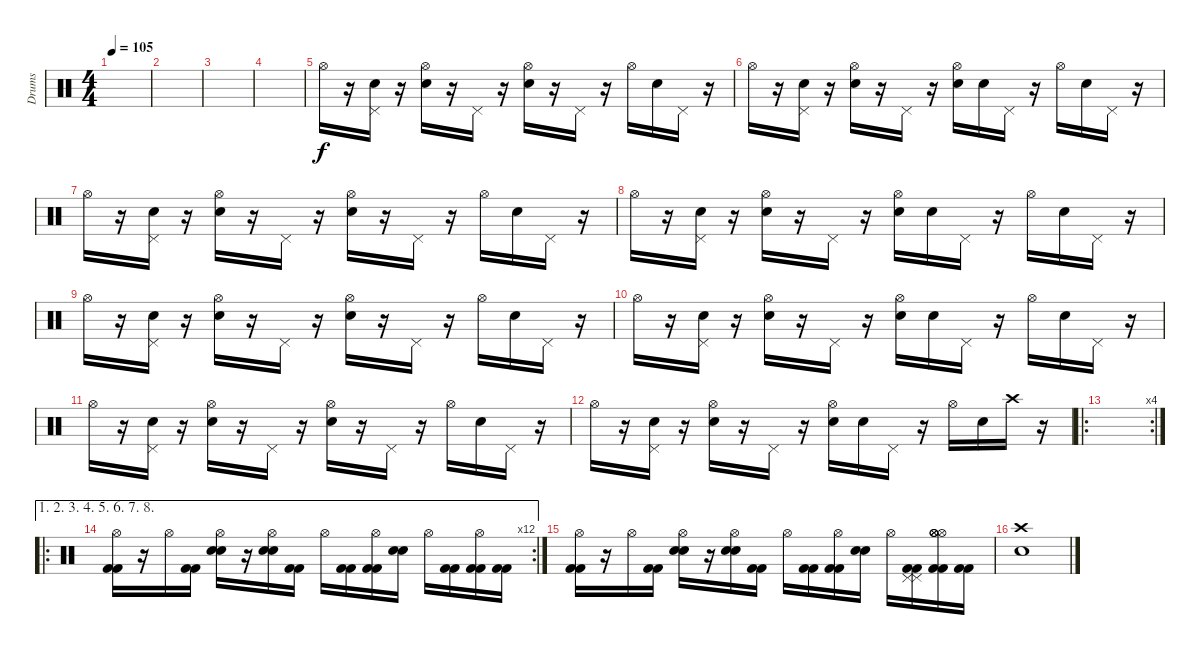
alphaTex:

\track ("Drums" "Drums") {instrument percussion}
\staff {score}
\articulation defaults
\ts (4 4)
\tempo 105
\clef neutral
\ks c
|
|
|
|
"Hi-Hat (open)".16 r.16 ("Pedal Hi-Hat (hit)" "Electric Snare (hit)").16 r.16 ("Hi-Hat (open)" "Electric Snare (hit)").16 r.16 "Pedal Hi-Hat (hit)".16 r.16 ("Hi-Hat (open)" "Electric Snare (hit)").16 r.16 "Pedal Hi-Hat (hit)".16 r.16 "Hi-Hat (open)".16 "Electric Snare (hit)".16 "Pedal Hi-Hat (hit)".16 r.16 |
"Hi-Hat (open)".16 r.16 ("Pedal Hi-Hat (hit)" "Electric Snare (hit)").16 r.16 ("Hi-Hat (open)" "Electric Snare (hit)").16 r.16 "Pedal Hi-Hat (hit)".16 r.16 ("Hi-Hat (open)" "Electric Snare (hit)").16 "Electric Snare (hit)".16 "Pedal Hi-Hat (hit)".16 r.16 "Hi-Hat (open)".16 "Electric Snare (hit)".16 "Pedal Hi-Hat (hit)".16 r.16 |
"Hi-Hat (open)".16 r.16 ("Pedal Hi-Hat (hit)" "Electric Snare (hit)").16 r.16 ("Hi-Hat (open)" "Electric Snare (hit)").16 r.16 "Pedal Hi-Hat (hit)".16 r.16 ("Hi-Hat (open)" "Electric Snare (hit)").16 r.16 "Pedal Hi-Hat (hit)".16 r.16 "Hi-Hat (open)".16 "Electric Snare (hit)".16 "Pedal Hi-Hat (hit)".16 r.16 |
"Hi-Hat (open)".16 r.16 ("Pedal Hi-Hat (hit)" "Electric Snare (hit)").16 r.16 ("Hi-Hat (open)" "Electric Snare (hit)").16 r.16 "Pedal Hi-Hat (hit)".16 r.16 ("Hi-Hat (open)" "Electric Snare (hit)").16 "Electric Snare (hit)".16 "Pedal Hi-Hat (hit)".16 r.16 "Hi-Hat (open)".16 "Electric Snare (hit)".16 "Pedal Hi-Hat (hit)".16 r.16 |
"Hi-Hat (open)".16 r.16 ("Pedal Hi-Hat (hit)" "Electric Snare (hit)").16 r.16 ("Hi-Hat (open)" "Electric Snare (hit)").16 r.16 "Pedal Hi-Hat (hit)".16 r.16 ("Hi-Hat (open)" "Electric Snare (hit)").16 r.16 "Pedal Hi-Hat (hit)".16 r.16 "Hi-Hat (open)".16 "Electric Snare (hit)".16 "Pedal Hi-Hat (hit)".16 r.16 |
"Hi-Hat (open)".16 r.16 ("Pedal Hi-Hat (hit)" "Electric Snare (hit)").16 r.16 ("Hi-Hat (open)" "Electric Snare (hit)").16 r.16 "Pedal Hi-Hat (hit)".16 r.16 ("Hi-Hat (open)" "Electric Snare (hit)").16 "Electric Snare (hit)".16 "Pedal Hi-Hat (hit)".16 r.16 "Hi-Hat (open)".16 "Electric Snare (hit)".16 "Pedal Hi-Hat (hit)".16 r.16 |
"Hi-Hat (open)".16 r.16 ("Pedal Hi-Hat (hit)" "Electric Snare (hit)").16 r.16 ("Hi-Hat (open)" "Electric Snare (hit)").16 r.16 "Pedal Hi-Hat (hit)".16 r.16 ("Hi-Hat (open)" "Electric Snare (hit)").16 r.16 "Pedal Hi-Hat (hit)".16 r.16 "Hi-Hat (open)".16 "Electric Snare (hit)".16 "Pedal Hi-Hat (hit)".16 r.16 |
"Hi-Hat (open)".16 r.16 ("Pedal Hi-Hat (hit)" "Electric Snare (hit)").16 r.16 ("Hi-Hat (open)" "Electric Snare (hit)").16 r.16 "Pedal Hi-Hat (hit)".16 r.16 ("Hi-Hat (open)" "Electric Snare (hit)").16 "Electric Snare (hit)".16 "Pedal Hi-Hat (hit)".16 r.16 "Hi-Hat (open)".16 "Electric Snare (hit)".16 "Crash high (hit)".16 r.16 |
\ro
\rc 4
|
\ae (1 2 3 4 5 6 7 8)
\ro
\rc 12
("Hi-Hat (open)" "Kick (hit) 2" "Kick (hit) 2").16 r.16 "Hi-Hat (open)".16 ("Kick (hit) 2" "Kick (hit) 2").16 ("Hi-Hat (open)" "Electric Snare (hit)" "Electric Snare (hit)").16 r.16 ("Hi-Hat (open)" "Electric Snare (hit)" "Electric Snare (hit)").16 ("Kick (hit) 2" "Kick (hit) 2").16 "Hi-Hat (open)".16 ("Kick (hit) 2" "Kick (hit) 2").16 ("Hi-Hat (open)" "Kick (hit) 2" "Kick (hit) 2").16 ("Electric Snare (hit)" "Electric Snare (hit)").16 "Hi-Hat (open)".16 ("Kick (hit) 2" "Kick (hit) 2").16 ("Hi-Hat (open)" "Kick (hit) 2" "Kick (hit) 2").16 ("Kick (hit) 2" "Kick (hit) 2").16 |
("Hi-Hat (open)" "Kick (hit) 2" "Kick (hit) 2").16 r.16 "Hi-Hat (open)".16 ("Kick (hit) 2" "Kick (hit) 2").16 ("Hi-Hat (open)" "Electric Snare (hit)" "Electric Snare (hit)").16 r.16 ("Hi-Hat (open)" "Electric Snare (hit)" "Electric Snare (hit)").16 ("Kick (hit) 2" "Kick (hit) 2").16 "Hi-Hat (open)".16 ("Kick (hit) 2" "Kick (hit) 2").16 ("Hi-Hat (open)" "Kick (hit) 2" "Kick (hit) 2").16 ("Electric Snare (hit)" "Electric Snare (hit)").16 "Hi-Hat (open)".16 ("Pedal Hi-Hat (hit)" "Pedal Hi-Hat (hit)" "Kick (hit) 2" "Kick (hit) 2").16 ("Hi-Hat (open)" "Hi-Hat (open)" "Hi-Hat (open)" "Hi-Hat (open)" "Kick (hit) 2" "Kick (hit) 2").16 ("Kick (hit) 2" "Kick (hit) 2").16 |
("Crash high (hit)" "Electric Snare (hit)").1
